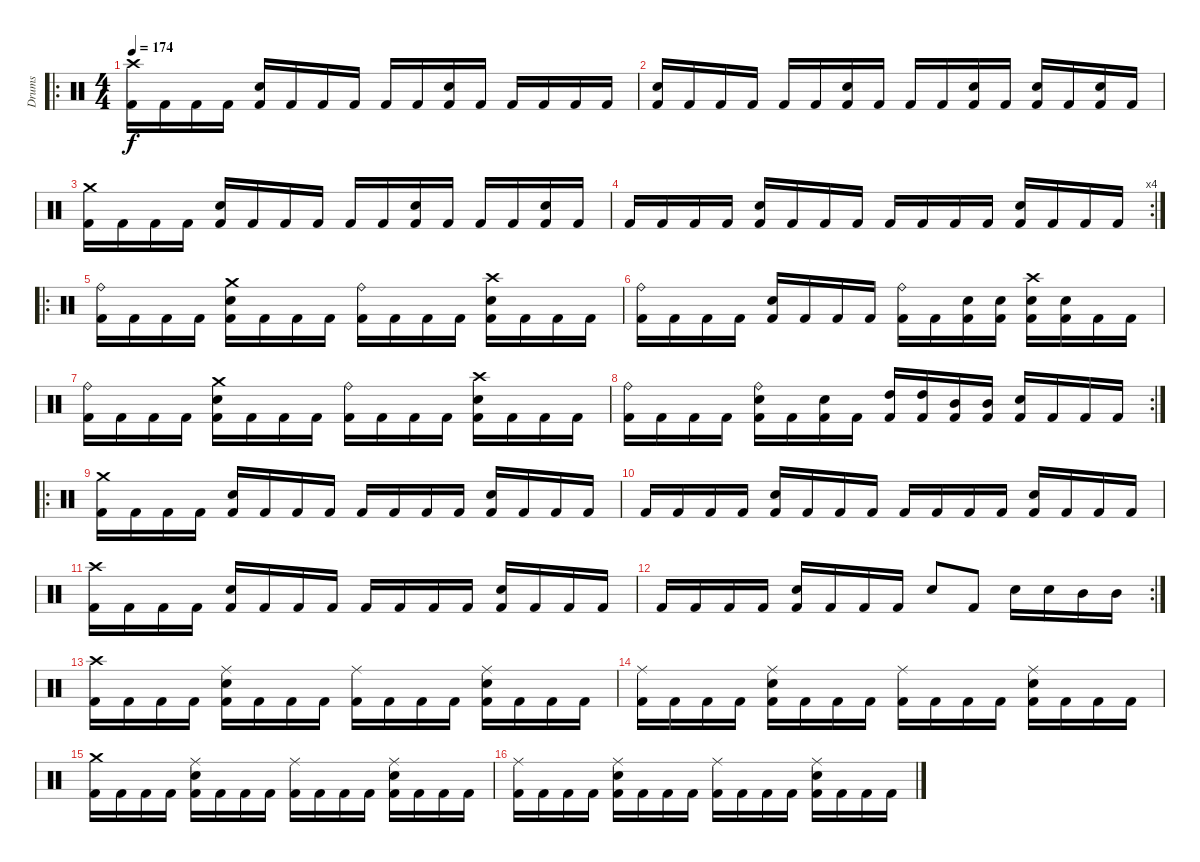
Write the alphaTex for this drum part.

\track ("Drums" "Drums") {instrument percussion}
\staff {score}
\articulation defaults
\ro
\ts (4 4)
\tempo 174
\clef neutral
\ks c
("Crash high (hit)" "Kick (hit) 2").16{dy f} "Kick (hit) 2".16 "Kick (hit) 2".16 "Kick (hit) 2".16 ("Electric Snare (hit)" "Kick (hit) 2").16 "Kick (hit) 2".16 "Kick (hit) 2".16 "Kick (hit) 2".16 "Kick (hit) 2".16 "Kick (hit) 2".16 ("Electric Snare (hit)" "Kick (hit) 2").16 "Kick (hit) 2".16 "Kick (hit) 2".16 "Kick (hit) 2".16 "Kick (hit) 2".16 "Kick (hit) 2".16 |
("Electric Snare (hit)" "Kick (hit) 2").16 "Kick (hit) 2".16 "Kick (hit) 2".16 "Kick (hit) 2".16 "Kick (hit) 2".16 "Kick (hit) 2".16 ("Electric Snare (hit)" "Kick (hit) 2").16 "Kick (hit) 2".16 "Kick (hit) 2".16 "Kick (hit) 2".16 ("Electric Snare (hit)" "Kick (hit) 2").16 "Kick (hit) 2".16 ("Electric Snare (hit)" "Kick (hit) 2").16 "Kick (hit) 2".16 ("Electric Snare (hit)" "Kick (hit) 2").16 "Kick (hit) 2".16 |
("Crash medium (hit)" "Kick (hit) 2").16 "Kick (hit) 2".16 "Kick (hit) 2".16 "Kick (hit) 2".16 ("Electric Snare (hit)" "Kick (hit) 2").16 "Kick (hit) 2".16 "Kick (hit) 2".16 "Kick (hit) 2".16 "Kick (hit) 2".16 "Kick (hit) 2".16 ("Electric Snare (hit)" "Kick (hit) 2").16 "Kick (hit) 2".16 "Kick (hit) 2".16 "Kick (hit) 2".16 ("Electric Snare (hit)" "Kick (hit) 2").16 "Kick (hit) 2".16 |
\rc 4 "Kick (hit) 2".16 "Kick (hit) 2".16 "Kick (hit) 2".16 "Kick (hit) 2".16
("Electric Snare (hit)" "Kick (hit) 2").16 "Kick (hit) 2".16 "Kick (hit) 2".16 "Kick (hit) 2".16 "Kick (hit) 2".16 "Kick (hit) 2".16 "Kick (hit) 2".16 "Kick (hit) 2".16 ("Electric Snare (hit)" "Kick (hit) 2").16 "Kick (hit) 2".16 "Kick (hit) 2".16 "Kick (hit) 2".16 |
\ro
("Ride (bell)" "Kick (hit) 2").16 "Kick (hit) 2".16 "Kick (hit) 2".16 "Kick (hit) 2".16 ("Crash medium (hit)" "Electric Snare (hit)" "Kick (hit) 2").16 "Kick (hit) 2".16 "Kick (hit) 2".16 "Kick (hit) 2".16 ("Ride (bell)" "Kick (hit) 2").16 "Kick (hit) 2".16 "Kick (hit) 2".16 "Kick (hit) 2".16 ("Crash high (hit)" "Electric Snare (hit)" "Kick (hit) 2").16 "Kick (hit) 2".16 "Kick (hit) 2".16 "Kick (hit) 2".16 |
("Ride (bell)" "Kick (hit) 2").16 "Kick (hit) 2".16 "Kick (hit) 2".16 "Kick (hit) 2".16 ("Electric Snare (hit)" "Kick (hit) 2").16 "Kick (hit) 2".16 "Kick (hit) 2".16 "Kick (hit) 2".16 ("Ride (bell)" "Kick (hit) 2").16 "Kick (hit) 2".16 ("Electric Snare (hit)" "Kick (hit) 2").16 ("Electric Snare (hit)" "Kick (hit) 2").16 ("Crash high (hit)" "Electric Snare (hit)" "Kick (hit) 2").16 ("Electric Snare (hit)" "Kick (hit) 2").16 "Kick (hit) 2".16 "Kick (hit) 2".16 |
("Ride (bell)" "Kick (hit) 2").16 "Kick (hit) 2".16 "Kick (hit) 2".16 "Kick (hit) 2".16 ("Crash medium (hit)" "Electric Snare (hit)" "Kick (hit) 2").16 "Kick (hit) 2".16 "Kick (hit) 2".16 "Kick (hit) 2".16 ("Ride (bell)" "Kick (hit) 2").16 "Kick (hit) 2".16 "Kick (hit) 2".16 "Kick (hit) 2".16 ("Crash high (hit)" "Electric Snare (hit)" "Kick (hit) 2").16 "Kick (hit) 2".16 "Kick (hit) 2".16 "Kick (hit) 2".16 |
\rc 2
("Ride (bell)" "Kick (hit) 2").16 "Kick (hit) 2".16 "Kick (hit) 2".16 "Kick (hit) 2".16 ("Electric Snare (hit)" "Ride (bell)" "Kick (hit) 2").16 "Kick (hit) 2".16 ("Electric Snare (hit)" "Kick (hit) 2").16 "Kick (hit) 2".16 ("High Tom (hit)" "Kick (hit) 2").16 ("High Tom (hit)" "Kick (hit) 2").16 ("Mid Tom (hit)" "Kick (hit) 2").16 ("Mid Tom (hit)" "Kick (hit) 2").16 ("Electric Snare (hit)" "Kick (hit) 2").16 "Kick (hit) 2".16 "Kick (hit) 2".16 "Kick (hit) 2".16 |
\ro
("Crash medium (hit)" "Kick (hit) 2").16 "Kick (hit) 2".16 "Kick (hit) 2".16 "Kick (hit) 2".16 ("Electric Snare (hit)" "Kick (hit) 2").16 "Kick (hit) 2".16 "Kick (hit) 2".16 "Kick (hit) 2".16 "Kick (hit) 2".16 "Kick (hit) 2".16 "Kick (hit) 2".16 "Kick (hit) 2".16 ("Electric Snare (hit)" "Kick (hit) 2").16 "Kick (hit) 2".16 "Kick (hit) 2".16 "Kick (hit) 2".16 |
"Kick (hit) 2".16 "Kick (hit) 2".16 "Kick (hit) 2".16 "Kick (hit) 2".16 ("Electric Snare (hit)" "Kick (hit) 2").16 "Kick (hit) 2".16 "Kick (hit) 2".16 "Kick (hit) 2".16 "Kick (hit) 2".16 "Kick (hit) 2".16 "Kick (hit) 2".16 "Kick (hit) 2".16 ("Electric Snare (hit)" "Kick (hit) 2").16 "Kick (hit) 2".16 "Kick (hit) 2".16 "Kick (hit) 2".16 |
("Crash high (hit)" "Kick (hit) 2").16 "Kick (hit) 2".16 "Kick (hit) 2".16 "Kick (hit) 2".16 ("Electric Snare (hit)" "Kick (hit) 2").16 "Kick (hit) 2".16 "Kick (hit) 2".16 "Kick (hit) 2".16 "Kick (hit) 2".16 "Kick (hit) 2".16 "Kick (hit) 2".16 "Kick (hit) 2".16 ("Electric Snare (hit)" "Kick (hit) 2").16 "Kick (hit) 2".16 "Kick (hit) 2".16 "Kick (hit) 2".16 |
\rc 2 "Kick (hit) 2".16 "Kick (hit) 2".16 "Kick (hit) 2".16 "Kick (hit) 2".16
("Electric Snare (hit)" "Kick (hit) 2").16 "Kick (hit) 2".16 "Kick (hit) 2".16 "Kick (hit) 2".16 "Electric Snare (hit)".8 "Kick (hit) 2".8 "Electric Snare (hit)".16 "Electric Snare (hit)".16 "Mid Tom (hit)".16 "Mid Tom (hit)".16 |
("Crash high (hit)" "Kick (hit) 2").16 "Kick (hit) 2".16 "Kick (hit) 2".16 "Kick (hit) 2".16 ("Electric Snare (hit)" "Ride (middle)" "Kick (hit) 2").16 "Kick (hit) 2".16 "Kick (hit) 2".16 "Kick (hit) 2".16 ("Ride (middle)" "Kick (hit) 2").16 "Kick (hit) 2".16 "Kick (hit) 2".16 "Kick (hit) 2".16 ("Electric Snare (hit)" "Ride (middle)" "Kick (hit) 2").16 "Kick (hit) 2".16 "Kick (hit) 2".16 "Kick (hit) 2".16 |
("Ride (middle)" "Kick (hit) 2").16 "Kick (hit) 2".16 "Kick (hit) 2".16 "Kick (hit) 2".16 ("Electric Snare (hit)" "Ride (middle)" "Kick (hit) 2").16 "Kick (hit) 2".16 "Kick (hit) 2".16 "Kick (hit) 2".16 ("Ride (middle)" "Kick (hit) 2").16 "Kick (hit) 2".16 "Kick (hit) 2".16 "Kick (hit) 2".16 ("Electric Snare (hit)" "Ride (middle)" "Kick (hit) 2").16 "Kick (hit) 2".16 "Kick (hit) 2".16 "Kick (hit) 2".16 |
("Crash medium (hit)" "Kick (hit) 2").16 "Kick (hit) 2".16 "Kick (hit) 2".16 "Kick (hit) 2".16 ("Electric Snare (hit)" "Ride (middle)" "Kick (hit) 2").16 "Kick (hit) 2".16 "Kick (hit) 2".16 "Kick (hit) 2".16 ("Ride (middle)" "Kick (hit) 2").16 "Kick (hit) 2".16 "Kick (hit) 2".16 "Kick (hit) 2".16 ("Electric Snare (hit)" "Ride (middle)" "Kick (hit) 2").16 "Kick (hit) 2".16 "Kick (hit) 2".16 "Kick (hit) 2".16 |
("Ride (middle)" "Kick (hit) 2").16 "Kick (hit) 2".16 "Kick (hit) 2".16 "Kick (hit) 2".16 ("Electric Snare (hit)" "Ride (middle)" "Kick (hit) 2").16 "Kick (hit) 2".16 "Kick (hit) 2".16 "Kick (hit) 2".16 ("Ride (middle)" "Kick (hit) 2").16 "Kick (hit) 2".16 "Kick (hit) 2".16 "Kick (hit) 2".16 ("Electric Snare (hit)" "Ride (middle)" "Kick (hit) 2").16 "Kick (hit) 2".16 "Kick (hit) 2".16 "Kick (hit) 2".16
